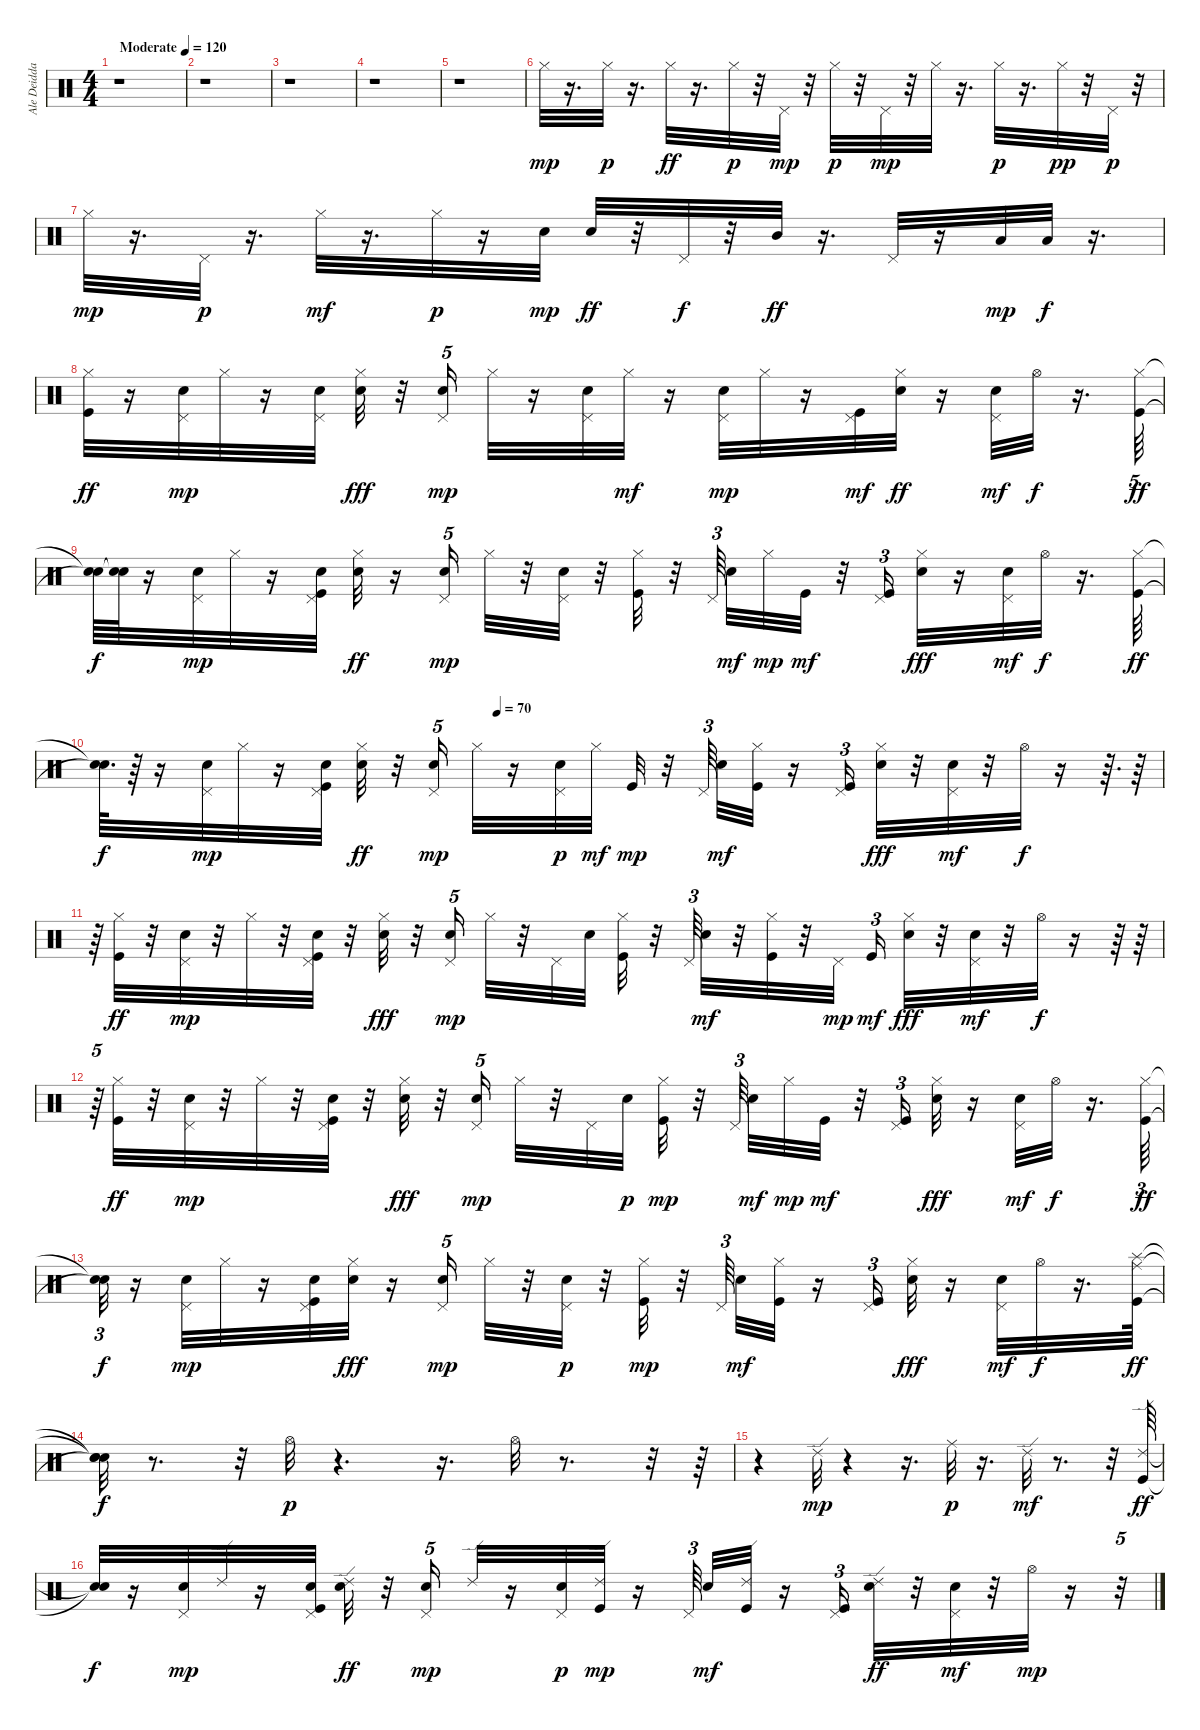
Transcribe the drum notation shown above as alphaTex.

\track ("Ale Deidda" "Ale Deidda") {instrument percussion}
\staff {score}
\articulation defaults
\ts (4 4)
\tempo (120 "Moderate")
\tempo 70
\tempo (120 "Moderate")
\clef neutral
\ks c
r.1{dy mp} |
r.1 |
r.1 |
r.1 |
r.1 |
"Hi-Hat (closed)".32 r.16{d} "Hi-Hat (closed)".32{dy p} r.16{d} "Hi-Hat (closed)".32{dy ff} r.16{d} "Hi-Hat (closed)".32{dy p} r.32 "Pedal Hi-Hat (hit)".32{dy mp} r.32 "Hi-Hat (closed)".32{dy p} r.32 "Pedal Hi-Hat (hit)".32{dy mp} r.32 "Hi-Hat (closed)".32 r.16{d} "Hi-Hat (closed)".32{dy p} r.16{d} "Hi-Hat (closed)".32{dy pp} r.32 "Pedal Hi-Hat (hit)".32{dy p} r.32 |
"Hi-Hat (closed)".32{dy mp} r.16{d} "Pedal Hi-Hat (hit)".32{dy p} r.16{d} "Hi-Hat (closed)".32{dy mf} r.16{d} "Hi-Hat (closed)".32{dy p} r.16 "Electric Snare (hit)".32{dy mp} "Electric Snare (hit)".32{dy ff} r.32 "Pedal Hi-Hat (hit)".32{dy f} r.32 "Mid Tom (hit)".32{dy ff} r.16{d} "Pedal Hi-Hat (hit)".32 r.16 "Low Tom (hit)".32{dy mp} "Low Floor Tom (hit)".32{dy f} r.16{d} |
("Kick (hit)" "Hi-Hat (closed)").32{dy ff} r.16 ("Snare (hit) 2" "Pedal Hi-Hat (hit)").32{dy mp} "Hi-Hat (closed)".32 r.16 ("Snare (hit) 2" "Pedal Hi-Hat (hit)").32 ("Electric Snare (hit)" "Hi-Hat (closed)").32{dy fff} r.32 ("Snare (hit) 2" "Pedal Hi-Hat (hit)").16{tu (5 4) dy mp} "Hi-Hat (closed)".32 r.16 ("Snare (hit) 2" "Pedal Hi-Hat (hit)").32 "Hi-Hat (closed)".32{dy mf} r.16 ("Snare (hit) 2" "Pedal Hi-Hat (hit)").32{dy mp} "Hi-Hat (closed)".32 r.16 ("Pedal Hi-Hat (hit)" "Kick (hit)").32{dy mf} ("Hi-Hat (closed)" "Electric Snare (hit)").32{dy ff} r.16 ("Snare (hit) 2" "Pedal Hi-Hat (hit)").32{dy mf} "Hi-Hat (open)".32{dy f} r.16{d} ("Kick (hit)" "Hi-Hat (closed)").64{tu (5 4) dy ff} |
("Snare (hit)"{t} "Snare (hit)"{t}).64{dy f} ("Snare (hit)"{t} "Snare (hit)"{t}).64 r.16 ("Snare (hit) 2" "Pedal Hi-Hat (hit)").32{dy mp} "Hi-Hat (closed)".32 r.16 ("Snare (hit) 2" "Pedal Hi-Hat (hit)" "Kick (hit)").32 ("Electric Snare (hit)" "Hi-Hat (closed)").32{dy ff} r.16 ("Snare (hit) 2" "Pedal Hi-Hat (hit)").16{tu (5 4) dy mp} "Hi-Hat (closed)".32 r.32 ("Pedal Hi-Hat (hit)" "Snare (hit) 2").32 r.32 ("Hi-Hat (closed)" "Kick (hit)").32 r.32 "Pedal Hi-Hat (hit)".64{tu (3 2) beam splitsecondary} "Snare (hit) 2".32{dy mf} "Hi-Hat (closed)".32{dy mp} "Kick (hit)".32{dy mf} r.32 ("Pedal Hi-Hat (hit)" "Kick (hit)").16{tu (3 2)} ("Electric Snare (hit)" "Hi-Hat (closed)").32{dy fff} r.16 ("Snare (hit) 2" "Pedal Hi-Hat (hit)").32{dy mf} "Hi-Hat (open)".32{dy f} r.16{d} ("Kick (hit)" "Hi-Hat (closed)").64{dy ff} |
\tempo (70 0.375)
("Snare (hit)"{t} "Snare (hit)"{t}).64{d dy f} r.64 r.16 ("Snare (hit) 2" "Pedal Hi-Hat (hit)").32{dy mp} "Hi-Hat (closed)".32 r.16 ("Snare (hit) 2" "Pedal Hi-Hat (hit)" "Kick (hit)").32 ("Electric Snare (hit)" "Hi-Hat (closed)").32{dy ff} r.32 ("Snare (hit) 2" "Pedal Hi-Hat (hit)").16{tu (5 4) dy mp} "Hi-Hat (closed)".32 r.16 ("Pedal Hi-Hat (hit)" "Snare (hit) 2").32{dy p} "Hi-Hat (closed)".32{dy mf} "Kick (hit)".32{dy mp} r.32 "Pedal Hi-Hat (hit)".64{tu (3 2) beam splitsecondary} "Snare (hit) 2".32{dy mf} ("Hi-Hat (closed)" "Kick (hit)").32 r.16 ("Pedal Hi-Hat (hit)" "Kick (hit)").16{tu (3 2)} ("Electric Snare (hit)" "Hi-Hat (closed)").32{dy fff} r.32 ("Snare (hit) 2" "Pedal Hi-Hat (hit)").32{dy mf} r.32 "Hi-Hat (open)".32{dy f} r.16 r.64{d} r.64 |
r.64 ("Kick (hit)" "Hi-Hat (closed)").32{dy ff} r.32 ("Snare (hit) 2" "Pedal Hi-Hat (hit)").32{dy mp} r.32 "Hi-Hat (closed)".32 r.32 ("Snare (hit) 2" "Pedal Hi-Hat (hit)" "Kick (hit)").32 r.32 ("Electric Snare (hit)" "Hi-Hat (closed)").32{dy fff} r.32 ("Snare (hit) 2" "Pedal Hi-Hat (hit)").16{tu (5 4) dy mp} "Hi-Hat (closed)".32 r.32 "Pedal Hi-Hat (hit)".32 "Snare (hit) 2".32 ("Hi-Hat (closed)" "Kick (hit)").32 r.32 "Pedal Hi-Hat (hit)".64{tu (3 2)} "Snare (hit) 2".32{dy mf} r.32 ("Hi-Hat (closed)" "Kick (hit)").32 r.32 "Pedal Hi-Hat (hit)".32{dy mp} "Kick (hit)".16{tu (3 2) dy mf} ("Electric Snare (hit)" "Hi-Hat (closed)").32{dy fff} r.32 ("Snare (hit) 2" "Pedal Hi-Hat (hit)").32{dy mf} r.32 "Hi-Hat (open)".32{dy f} r.16 r.64 r.64 |
r.64{tu (5 4)} ("Kick (hit)" "Hi-Hat (closed)").32{dy ff} r.32 ("Snare (hit) 2" "Pedal Hi-Hat (hit)").32{dy mp} r.32 "Hi-Hat (closed)".32 r.32 ("Snare (hit) 2" "Pedal Hi-Hat (hit)" "Kick (hit)").32 r.32 ("Electric Snare (hit)" "Hi-Hat (closed)").32{dy fff} r.32 ("Snare (hit) 2" "Pedal Hi-Hat (hit)").16{tu (5 4) dy mp} "Hi-Hat (closed)".32 r.32 "Pedal Hi-Hat (hit)".32 "Snare (hit) 2".32{dy p} ("Hi-Hat (closed)" "Kick (hit)").32{dy mp} r.32 "Pedal Hi-Hat (hit)".64{tu (3 2) beam splitsecondary} "Snare (hit) 2".32{dy mf} "Hi-Hat (closed)".32{dy mp} "Kick (hit)".32{dy mf} r.32 ("Pedal Hi-Hat (hit)" "Kick (hit)").16{tu (3 2)} ("Electric Snare (hit)" "Hi-Hat (closed)").32{dy fff} r.16 ("Snare (hit) 2" "Pedal Hi-Hat (hit)").32{dy mf} "Hi-Hat (open)".32{dy f} r.16{d} ("Kick (hit)" "Hi-Hat (closed)").64{tu (3 2) dy ff} |
("Snare (hit)"{t} "Snare (hit)"{t}).32{tu (3 2) dy f} r.16 ("Snare (hit) 2" "Pedal Hi-Hat (hit)").32{dy mp} "Hi-Hat (closed)".32 r.16 ("Snare (hit) 2" "Pedal Hi-Hat (hit)" "Kick (hit)").32 ("Electric Snare (hit)" "Hi-Hat (closed)").32{dy fff} r.16 ("Snare (hit) 2" "Pedal Hi-Hat (hit)").16{tu (5 4) dy mp} "Hi-Hat (closed)".32 r.32 ("Pedal Hi-Hat (hit)" "Snare (hit) 2").32{dy p} r.32 ("Hi-Hat (closed)" "Kick (hit)").32{dy mp} r.32 "Pedal Hi-Hat (hit)".64{tu (3 2) beam splitsecondary} "Snare (hit) 2".32{dy mf} ("Hi-Hat (closed)" "Kick (hit)").32 r.16 ("Pedal Hi-Hat (hit)" "Kick (hit)").16{tu (3 2)} ("Electric Snare (hit)" "Hi-Hat (closed)").32{dy fff} r.16 ("Snare (hit) 2" "Pedal Hi-Hat (hit)").32{dy mf} "Hi-Hat (open)".32{dy f} r.16{d} ("Kick (hit)" "Splash (hit)" "Ride (middle)").64{dy ff} |
("Snare (hit)"{t} "Snare (hit)"{t} "Snare (hit)"{t}).32{dy f} r.8{d} r.32 "Hi-Hat (open)".32{dy p} r.4{d} r.16{d} "Hi-Hat (open)".32 r.8{d} r.32 r.64 |
r.4 "Ride (edge) 2".32{dy mp} r.4 r.16{d} "Ride (middle)".32{dy p} r.16{d} "Ride (edge) 2".32{dy mf} r.8{d} r.32 ("Kick (hit)" "Ride (edge) 2").64{dy ff} |
("Snare (hit)"{t} "Snare (hit)"{t}).32{dy f} r.16 ("Snare (hit) 2" "Pedal Hi-Hat (hit)").32{dy mp} "Ride (edge) 2".32 r.16 ("Snare (hit) 2" "Pedal Hi-Hat (hit)" "Kick (hit)").32 ("Ride (edge) 2" "Electric Snare (hit)").32{dy ff} r.32 ("Snare (hit) 2" "Pedal Hi-Hat (hit)").16{tu (5 4) dy mp} "Ride (edge) 2".32 r.16 ("Pedal Hi-Hat (hit)" "Snare (hit) 2").32{dy p} ("Ride (edge) 2" "Kick (hit)").32{dy mp} r.16 "Pedal Hi-Hat (hit)".64{tu (3 2) beam splitsecondary} "Snare (hit) 2".32{dy mf} ("Ride (edge) 2" "Kick (hit)").32 r.16 ("Pedal Hi-Hat (hit)" "Kick (hit)").16{tu (3 2)} ("Electric Snare (hit)" "Ride (edge) 2").32{dy ff} r.32 ("Snare (hit) 2" "Pedal Hi-Hat (hit)").32{dy mf} r.32 "Hi-Hat (open)".32{dy mp} r.16 r.32{tu (5 4)}
